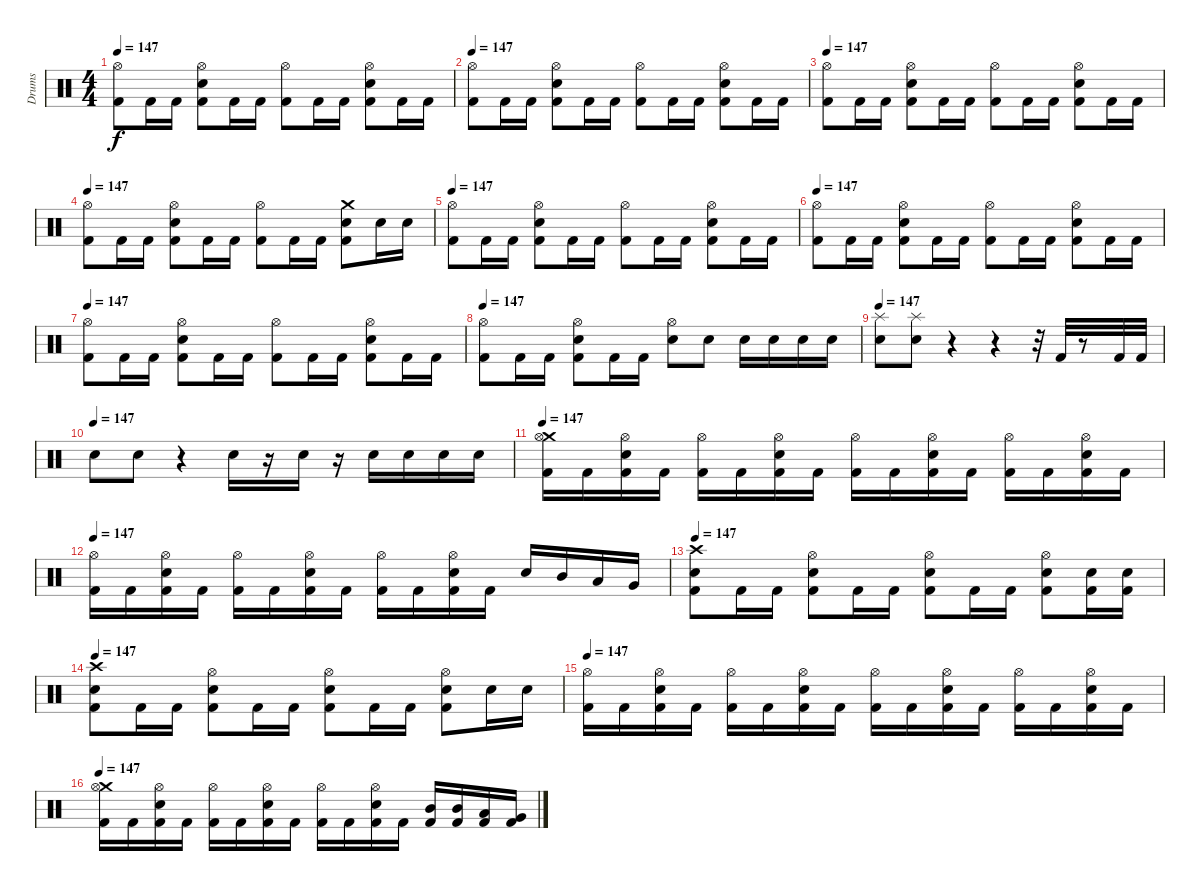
\track ("Drums" "Drums") {instrument percussion}
\staff {score}
\articulation defaults
\ts (4 4)
\tempo 147
\clef neutral
\ks c
("Hi-Hat (open)" "Kick (hit) 2").8{dy f} "Kick (hit) 2".16 "Kick (hit) 2".16 ("Hi-Hat (open)" "Electric Snare (hit)" "Kick (hit) 2").8 "Kick (hit) 2".16 "Kick (hit) 2".16 ("Hi-Hat (open)" "Kick (hit) 2").8 "Kick (hit) 2".16 "Kick (hit) 2".16 ("Hi-Hat (open)" "Electric Snare (hit)" "Kick (hit) 2").8 "Kick (hit) 2".16 "Kick (hit) 2".16 |
\tempo 147
("Hi-Hat (open)" "Kick (hit) 2").8 "Kick (hit) 2".16 "Kick (hit) 2".16 ("Hi-Hat (open)" "Electric Snare (hit)" "Kick (hit) 2").8 "Kick (hit) 2".16 "Kick (hit) 2".16 ("Hi-Hat (open)" "Kick (hit) 2").8 "Kick (hit) 2".16 "Kick (hit) 2".16 ("Hi-Hat (open)" "Electric Snare (hit)" "Kick (hit) 2").8 "Kick (hit) 2".16 "Kick (hit) 2".16 |
\tempo 147
("Hi-Hat (open)" "Kick (hit) 2").8 "Kick (hit) 2".16 "Kick (hit) 2".16 ("Hi-Hat (open)" "Electric Snare (hit)" "Kick (hit) 2").8 "Kick (hit) 2".16 "Kick (hit) 2".16 ("Hi-Hat (open)" "Kick (hit) 2").8 "Kick (hit) 2".16 "Kick (hit) 2".16 ("Hi-Hat (open)" "Electric Snare (hit)" "Kick (hit) 2").8 "Kick (hit) 2".16 "Kick (hit) 2".16 |
\tempo 147
("Hi-Hat (open)" "Kick (hit) 2").8 "Kick (hit) 2".16 "Kick (hit) 2".16 ("Hi-Hat (open)" "Electric Snare (hit)" "Kick (hit) 2").8 "Kick (hit) 2".16 "Kick (hit) 2".16 ("Hi-Hat (open)" "Kick (hit) 2").8 "Kick (hit) 2".16 "Kick (hit) 2".16 ("Crash medium (hit)" "Electric Snare (hit)" "Kick (hit) 2").8 "Electric Snare (hit)".16 "Electric Snare (hit)".16 |
\tempo 147
("Hi-Hat (open)" "Kick (hit) 2").8 "Kick (hit) 2".16 "Kick (hit) 2".16 ("Hi-Hat (open)" "Electric Snare (hit)" "Kick (hit) 2").8 "Kick (hit) 2".16 "Kick (hit) 2".16 ("Hi-Hat (open)" "Kick (hit) 2").8 "Kick (hit) 2".16 "Kick (hit) 2".16 ("Hi-Hat (open)" "Electric Snare (hit)" "Kick (hit) 2").8 "Kick (hit) 2".16 "Kick (hit) 2".16 |
\tempo 147
("Hi-Hat (open)" "Kick (hit) 2").8 "Kick (hit) 2".16 "Kick (hit) 2".16 ("Hi-Hat (open)" "Electric Snare (hit)" "Kick (hit) 2").8 "Kick (hit) 2".16 "Kick (hit) 2".16 ("Hi-Hat (open)" "Kick (hit) 2").8 "Kick (hit) 2".16 "Kick (hit) 2".16 ("Hi-Hat (open)" "Electric Snare (hit)" "Kick (hit) 2").8 "Kick (hit) 2".16 "Kick (hit) 2".16 |
\tempo 147
("Hi-Hat (open)" "Kick (hit) 2").8 "Kick (hit) 2".16 "Kick (hit) 2".16 ("Hi-Hat (open)" "Electric Snare (hit)" "Kick (hit) 2").8 "Kick (hit) 2".16 "Kick (hit) 2".16 ("Hi-Hat (open)" "Kick (hit) 2").8 "Kick (hit) 2".16 "Kick (hit) 2".16 ("Hi-Hat (open)" "Electric Snare (hit)" "Kick (hit) 2").8 "Kick (hit) 2".16 "Kick (hit) 2".16 |
\tempo 147
("Hi-Hat (open)" "Kick (hit) 2").8 "Kick (hit) 2".16 "Kick (hit) 2".16 ("Hi-Hat (open)" "Electric Snare (hit)" "Kick (hit) 2").8 "Kick (hit) 2".16 "Kick (hit) 2".16 ("Hi-Hat (open)" "Snare (hit) 2").8 "Snare (hit) 2".8 "Snare (hit) 2".16 "Snare (hit) 2".16 "Snare (hit) 2".16 "Snare (hit) 2".16 |
\tempo 147
("Splash (hit)" "Electric Snare (hit)").8 ("Splash (hit)" "Electric Snare (hit)").8 r.4 r.4 r.32 "Kick (hit) 2".32 r.8 "Kick (hit) 2".32 "Kick (hit) 2".32 |
\tempo (147)
"Electric Snare (hit)".8 "Electric Snare (hit)".8 r.4 "Electric Snare (hit)".16 r.16 "Electric Snare (hit)".16 r.16 "Electric Snare (hit)".16 "Electric Snare (hit)".16 "Electric Snare (hit)".16 "Electric Snare (hit)".16 |
\tempo 147
("Crash medium (hit)" "Hi-Hat (open)" "Kick (hit) 2").16 "Kick (hit) 2".16 ("Hi-Hat (open)" "Electric Snare (hit)" "Kick (hit) 2").16 "Kick (hit) 2".16 ("Hi-Hat (open)" "Kick (hit) 2").16 "Kick (hit) 2".16 ("Hi-Hat (open)" "Electric Snare (hit)" "Kick (hit) 2").16 "Kick (hit) 2".16 ("Hi-Hat (open)" "Kick (hit) 2").16 "Kick (hit) 2".16 ("Hi-Hat (open)" "Electric Snare (hit)" "Kick (hit) 2").16 "Kick (hit) 2".16 ("Hi-Hat (open)" "Kick (hit) 2").16 "Kick (hit) 2".16 ("Hi-Hat (open)" "Electric Snare (hit)" "Kick (hit) 2").16 "Kick (hit) 2".16 |
\tempo 147
("Hi-Hat (open)" "Kick (hit) 2").16 "Kick (hit) 2".16 ("Hi-Hat (open)" "Electric Snare (hit)" "Kick (hit) 2").16 "Kick (hit) 2".16 ("Hi-Hat (open)" "Kick (hit) 2").16 "Kick (hit) 2".16 ("Hi-Hat (open)" "Electric Snare (hit)" "Kick (hit) 2").16 "Kick (hit) 2".16 ("Hi-Hat (open)" "Kick (hit) 2").16 "Kick (hit) 2".16 ("Hi-Hat (open)" "Electric Snare (hit)" "Kick (hit) 2").16 "Kick (hit) 2".16 "Snare (hit) 2".16 "Mid Tom (hit)".16 "Low Tom (hit)".16 "Very Low Tom (hit)".16 |
\tempo 147
("Crash high (hit)" "Electric Snare (hit)" "Kick (hit) 2").8 "Kick (hit) 2".16 "Kick (hit) 2".16 ("Hi-Hat (open)" "Electric Snare (hit)" "Kick (hit) 2").8 "Kick (hit) 2".16 "Kick (hit) 2".16 ("Hi-Hat (open)" "Electric Snare (hit)" "Kick (hit) 2").8 "Kick (hit) 2".16 "Kick (hit) 2".16 ("Hi-Hat (open)" "Electric Snare (hit)" "Kick (hit) 2").8 ("Electric Snare (hit)" "Kick (hit) 2").16 ("Electric Snare (hit)" "Kick (hit) 2").16 |
\tempo 147
("Crash high (hit)" "Electric Snare (hit)" "Kick (hit) 2").8 "Kick (hit) 2".16 "Kick (hit) 2".16 ("Hi-Hat (open)" "Electric Snare (hit)" "Kick (hit) 2").8 "Kick (hit) 2".16 "Kick (hit) 2".16 ("Hi-Hat (open)" "Electric Snare (hit)" "Kick (hit) 2").8 "Kick (hit) 2".16 "Kick (hit) 2".16 ("Hi-Hat (open)" "Electric Snare (hit)" "Kick (hit) 2").8 "Electric Snare (hit)".16 "Electric Snare (hit)".16 |
\tempo 147
("Hi-Hat (open)" "Kick (hit) 2").16 "Kick (hit) 2".16 ("Hi-Hat (open)" "Electric Snare (hit)" "Kick (hit) 2").16 "Kick (hit) 2".16 ("Hi-Hat (open)" "Kick (hit) 2").16 "Kick (hit) 2".16 ("Hi-Hat (open)" "Electric Snare (hit)" "Kick (hit) 2").16 "Kick (hit) 2".16 ("Hi-Hat (open)" "Kick (hit) 2").16 "Kick (hit) 2".16 ("Hi-Hat (open)" "Electric Snare (hit)" "Kick (hit) 2").16 "Kick (hit) 2".16 ("Hi-Hat (open)" "Kick (hit) 2").16 "Kick (hit) 2".16 ("Hi-Hat (open)" "Electric Snare (hit)" "Kick (hit) 2").16 "Kick (hit) 2".16 |
\tempo 147
("Crash medium (hit)" "Hi-Hat (open)" "Kick (hit) 2").16 "Kick (hit) 2".16 ("Hi-Hat (open)" "Electric Snare (hit)" "Kick (hit) 2").16 "Kick (hit) 2".16 ("Hi-Hat (open)" "Kick (hit) 2").16 "Kick (hit) 2".16 ("Hi-Hat (open)" "Electric Snare (hit)" "Kick (hit) 2").16 "Kick (hit) 2".16 ("Hi-Hat (open)" "Kick (hit) 2").16 "Kick (hit) 2".16 ("Hi-Hat (open)" "Electric Snare (hit)" "Kick (hit) 2").16 "Kick (hit) 2".16 ("Mid Tom (hit)" "Kick (hit) 2").16 ("Mid Tom (hit)" "Kick (hit) 2").16 ("Low Tom (hit)" "Kick (hit) 2").16 ("Very Low Tom (hit)" "Kick (hit) 2").16
